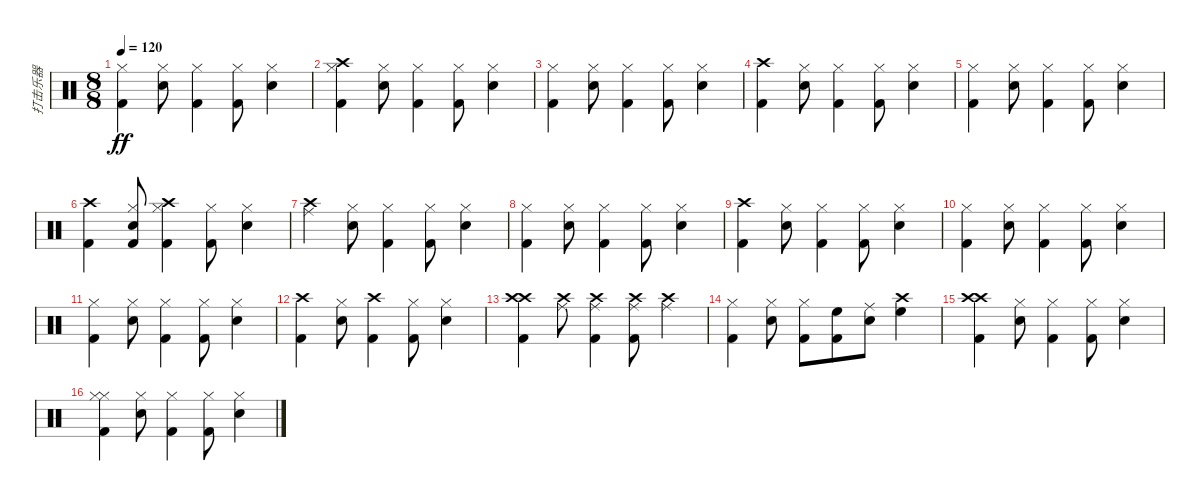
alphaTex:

\track ("打击乐器" "打击乐器") {instrument percussion}
\staff {score}
\articulation defaults
\ts (8 8)
\tempo 120
\clef neutral
\ks c
("Kick (hit) 2" "Hi-Hat (closed)").4{dy ff} ("Snare (hit) 2" "Hi-Hat (closed)").8 ("Kick (hit) 2" "Hi-Hat (closed)").4 ("Kick (hit) 2" "Hi-Hat (closed)").8 ("Snare (hit) 2" "Hi-Hat (closed)").4 |
("Crash high (hit)" "Kick (hit) 2" "Hi-Hat (closed)").4 ("Snare (hit) 2" "Hi-Hat (closed)").8 ("Kick (hit) 2" "Hi-Hat (closed)").4 ("Kick (hit) 2" "Hi-Hat (closed)").8 ("Snare (hit) 2" "Hi-Hat (closed)").4 |
("Kick (hit) 2" "Hi-Hat (closed)").4 ("Snare (hit) 2" "Hi-Hat (closed)").8 ("Kick (hit) 2" "Hi-Hat (closed)").4 ("Kick (hit) 2" "Hi-Hat (closed)").8 ("Snare (hit) 2" "Hi-Hat (closed)").4 |
("Kick (hit) 2" "Crash high (hit)").4 ("Snare (hit) 2" "Hi-Hat (closed)").8 ("Kick (hit) 2" "Hi-Hat (closed)").4 ("Kick (hit) 2" "Hi-Hat (closed)").8 ("Snare (hit) 2" "Hi-Hat (closed)").4 |
("Kick (hit) 2" "Hi-Hat (closed)").4 ("Snare (hit) 2" "Hi-Hat (closed)").8 ("Kick (hit) 2" "Hi-Hat (closed)").4 ("Kick (hit) 2" "Hi-Hat (closed)").8 ("Snare (hit) 2" "Hi-Hat (closed)").4 |
("Kick (hit) 2" "Crash high (hit)").4 ("Kick (hit) 2" "Snare (hit) 2" "Hi-Hat (closed)").8 ("Crash high (hit)" "Kick (hit) 2" "Hi-Hat (closed)").4 ("Kick (hit) 2" "Hi-Hat (closed)").8 ("Snare (hit) 2" "Hi-Hat (closed)").4 |
("Crash high (hit)" "Ride (middle)").4 ("Snare (hit) 2" "Hi-Hat (closed)").8 ("Kick (hit) 2" "Hi-Hat (closed)").4 ("Kick (hit) 2" "Hi-Hat (closed)").8 ("Snare (hit) 2" "Hi-Hat (closed)").4 |
("Kick (hit) 2" "Hi-Hat (closed)").4 ("Snare (hit) 2" "Hi-Hat (closed)").8 ("Kick (hit) 2" "Hi-Hat (closed)").4 ("Kick (hit) 2" "Hi-Hat (closed)").8 ("Snare (hit) 2" "Hi-Hat (closed)").4 |
("Kick (hit) 2" "Crash high (hit)").4 ("Snare (hit) 2" "Hi-Hat (closed)").8 ("Kick (hit) 2" "Hi-Hat (closed)").4 ("Kick (hit) 2" "Hi-Hat (closed)").8 ("Snare (hit) 2" "Hi-Hat (closed)").4 |
("Kick (hit) 2" "Hi-Hat (closed)").4 ("Snare (hit) 2" "Hi-Hat (closed)").8 ("Kick (hit) 2" "Hi-Hat (closed)").4 ("Kick (hit) 2" "Hi-Hat (closed)").8 ("Snare (hit) 2" "Hi-Hat (closed)").4 |
("Kick (hit) 2" "Hi-Hat (closed)").4 ("Snare (hit) 2" "Hi-Hat (closed)").8 ("Kick (hit) 2" "Hi-Hat (closed)").4 ("Kick (hit) 2" "Hi-Hat (closed)").8 ("Snare (hit) 2" "Hi-Hat (closed)").4 |
("Kick (hit) 2" "Crash high (hit)").4 ("Snare (hit) 2" "Hi-Hat (closed)").8 ("Kick (hit) 2" "Crash high (hit)").4 ("Kick (hit) 2" "Hi-Hat (closed)").8 ("Snare (hit) 2" "Hi-Hat (closed)").4 |
("Crash high (hit)" "Kick (hit) 2" "Crash high (hit)").4 ("Crash high (hit)" "Ride (middle)").8 ("Crash high (hit)" "Kick (hit) 2" "Ride (middle)").4 ("Crash high (hit)" "Kick (hit) 2" "Ride (middle)").8 ("Crash high (hit)" "Ride (middle)").4 |
("Kick (hit) 2" "Hi-Hat (closed)").4 ("Snare (hit) 2" "Hi-Hat (closed)").8 ("Kick (hit) 2" "Hi-Hat (closed)").8 ("Kick (hit) 2" "High Floor Tom (hit)").8 ("Snare (hit) 2" "Ride (middle)").8 ("Crash high (hit)" "High Floor Tom (hit)").4 |
("Crash high (hit)" "Kick (hit) 2" "Crash high (hit)").4 ("Snare (hit) 2" "Hi-Hat (closed)").8 ("Kick (hit) 2" "Hi-Hat (closed)").4 ("Kick (hit) 2" "Hi-Hat (closed)").8 ("Snare (hit) 2" "Hi-Hat (closed)").4 |
("Hi-Hat (closed)" "Kick (hit) 2" "Hi-Hat (closed)").4 ("Snare (hit) 2" "Hi-Hat (closed)").8 ("Kick (hit) 2" "Hi-Hat (closed)").4 ("Kick (hit) 2" "Hi-Hat (closed)").8 ("Snare (hit) 2" "Hi-Hat (closed)").4
